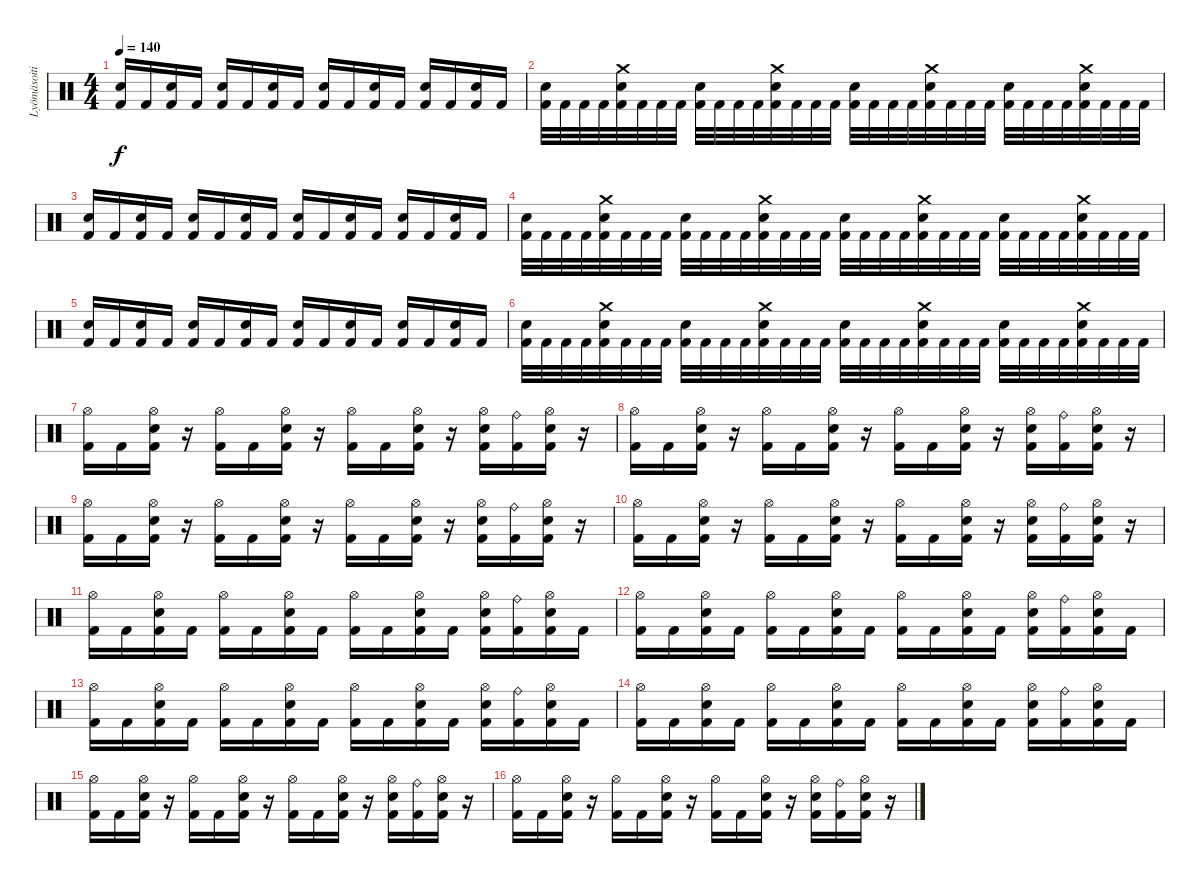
\track ("Lyömäsoitin" "Lyömäsoiti") {instrument percussion}
\staff {score}
\articulation defaults
\ts (4 4)
\tempo 140
\clef neutral
\ks c
("Electric Snare (hit)" "Kick (hit) 2").16{dy f} "Kick (hit) 2".16 ("Electric Snare (hit)" "Kick (hit) 2").16 "Kick (hit) 2".16 ("Electric Snare (hit)" "Kick (hit) 2").16 "Kick (hit) 2".16 ("Electric Snare (hit)" "Kick (hit) 2").16 "Kick (hit) 2".16 ("Electric Snare (hit)" "Kick (hit) 2").16 "Kick (hit) 2".16 ("Electric Snare (hit)" "Kick (hit) 2").16 "Kick (hit) 2".16 ("Electric Snare (hit)" "Kick (hit) 2").16 "Kick (hit) 2".16 ("Electric Snare (hit)" "Kick (hit) 2").16 "Kick (hit) 2".16 |
("Electric Snare (hit)" "Kick (hit) 2").32 "Kick (hit) 2".32 "Kick (hit) 2".32 "Kick (hit) 2".32 ("Crash medium (hit)" "Electric Snare (hit)" "Kick (hit) 2").32 "Kick (hit) 2".32 "Kick (hit) 2".32 "Kick (hit) 2".32 ("Electric Snare (hit)" "Kick (hit) 2").32 "Kick (hit) 2".32 "Kick (hit) 2".32 "Kick (hit) 2".32 ("Crash medium (hit)" "Electric Snare (hit)" "Kick (hit) 2").32 "Kick (hit) 2".32 "Kick (hit) 2".32 "Kick (hit) 2".32 ("Electric Snare (hit)" "Kick (hit) 2").32 "Kick (hit) 2".32 "Kick (hit) 2".32 "Kick (hit) 2".32 ("Crash medium (hit)" "Electric Snare (hit)" "Kick (hit) 2").32 "Kick (hit) 2".32 "Kick (hit) 2".32 "Kick (hit) 2".32 ("Electric Snare (hit)" "Kick (hit) 2").32 "Kick (hit) 2".32 "Kick (hit) 2".32 "Kick (hit) 2".32 ("Crash medium (hit)" "Electric Snare (hit)" "Kick (hit) 2").32 "Kick (hit) 2".32 "Kick (hit) 2".32 "Kick (hit) 2".32 |
("Electric Snare (hit)" "Kick (hit) 2").16 "Kick (hit) 2".16 ("Electric Snare (hit)" "Kick (hit) 2").16 "Kick (hit) 2".16 ("Electric Snare (hit)" "Kick (hit) 2").16 "Kick (hit) 2".16 ("Electric Snare (hit)" "Kick (hit) 2").16 "Kick (hit) 2".16 ("Electric Snare (hit)" "Kick (hit) 2").16 "Kick (hit) 2".16 ("Electric Snare (hit)" "Kick (hit) 2").16 "Kick (hit) 2".16 ("Electric Snare (hit)" "Kick (hit) 2").16 "Kick (hit) 2".16 ("Electric Snare (hit)" "Kick (hit) 2").16 "Kick (hit) 2".16 |
("Electric Snare (hit)" "Kick (hit) 2").32 "Kick (hit) 2".32 "Kick (hit) 2".32 "Kick (hit) 2".32 ("Crash medium (hit)" "Electric Snare (hit)" "Kick (hit) 2").32 "Kick (hit) 2".32 "Kick (hit) 2".32 "Kick (hit) 2".32 ("Electric Snare (hit)" "Kick (hit) 2").32 "Kick (hit) 2".32 "Kick (hit) 2".32 "Kick (hit) 2".32 ("Crash medium (hit)" "Electric Snare (hit)" "Kick (hit) 2").32 "Kick (hit) 2".32 "Kick (hit) 2".32 "Kick (hit) 2".32 ("Electric Snare (hit)" "Kick (hit) 2").32 "Kick (hit) 2".32 "Kick (hit) 2".32 "Kick (hit) 2".32 ("Crash medium (hit)" "Electric Snare (hit)" "Kick (hit) 2").32 "Kick (hit) 2".32 "Kick (hit) 2".32 "Kick (hit) 2".32 ("Electric Snare (hit)" "Kick (hit) 2").32 "Kick (hit) 2".32 "Kick (hit) 2".32 "Kick (hit) 2".32 ("Crash medium (hit)" "Electric Snare (hit)" "Kick (hit) 2").32 "Kick (hit) 2".32 "Kick (hit) 2".32 "Kick (hit) 2".32 |
("Electric Snare (hit)" "Kick (hit) 2").16 "Kick (hit) 2".16 ("Electric Snare (hit)" "Kick (hit) 2").16 "Kick (hit) 2".16 ("Electric Snare (hit)" "Kick (hit) 2").16 "Kick (hit) 2".16 ("Electric Snare (hit)" "Kick (hit) 2").16 "Kick (hit) 2".16 ("Electric Snare (hit)" "Kick (hit) 2").16 "Kick (hit) 2".16 ("Electric Snare (hit)" "Kick (hit) 2").16 "Kick (hit) 2".16 ("Electric Snare (hit)" "Kick (hit) 2").16 "Kick (hit) 2".16 ("Electric Snare (hit)" "Kick (hit) 2").16 "Kick (hit) 2".16 |
("Electric Snare (hit)" "Kick (hit) 2").32 "Kick (hit) 2".32 "Kick (hit) 2".32 "Kick (hit) 2".32 ("Crash medium (hit)" "Electric Snare (hit)" "Kick (hit) 2").32 "Kick (hit) 2".32 "Kick (hit) 2".32 "Kick (hit) 2".32 ("Electric Snare (hit)" "Kick (hit) 2").32 "Kick (hit) 2".32 "Kick (hit) 2".32 "Kick (hit) 2".32 ("Crash medium (hit)" "Electric Snare (hit)" "Kick (hit) 2").32 "Kick (hit) 2".32 "Kick (hit) 2".32 "Kick (hit) 2".32 ("Electric Snare (hit)" "Kick (hit) 2").32 "Kick (hit) 2".32 "Kick (hit) 2".32 "Kick (hit) 2".32 ("Crash medium (hit)" "Electric Snare (hit)" "Kick (hit) 2").32 "Kick (hit) 2".32 "Kick (hit) 2".32 "Kick (hit) 2".32 ("Electric Snare (hit)" "Kick (hit) 2").32 "Kick (hit) 2".32 "Kick (hit) 2".32 "Kick (hit) 2".32 ("Crash medium (hit)" "Electric Snare (hit)" "Kick (hit) 2").32 "Kick (hit) 2".32 "Kick (hit) 2".32 "Kick (hit) 2".32 |
("Hi-Hat (open)" "Kick (hit) 2").16 "Kick (hit) 2".16 ("Hi-Hat (open)" "Electric Snare (hit)" "Kick (hit) 2").16 r.16 ("Hi-Hat (open)" "Kick (hit) 2").16 "Kick (hit) 2".16 ("Hi-Hat (open)" "Electric Snare (hit)" "Kick (hit) 2").16 r.16 ("Hi-Hat (open)" "Kick (hit) 2").16 "Kick (hit) 2".16 ("Hi-Hat (open)" "Electric Snare (hit)" "Kick (hit) 2").16 r.16 ("Hi-Hat (open)" "Electric Snare (hit)" "Kick (hit) 2").16 ("Ride (bell)" "Kick (hit) 2").16 ("Hi-Hat (open)" "Electric Snare (hit)" "Kick (hit) 2").16 r.16 |
("Hi-Hat (open)" "Kick (hit) 2").16 "Kick (hit) 2".16 ("Hi-Hat (open)" "Electric Snare (hit)" "Kick (hit) 2").16 r.16 ("Hi-Hat (open)" "Kick (hit) 2").16 "Kick (hit) 2".16 ("Hi-Hat (open)" "Electric Snare (hit)" "Kick (hit) 2").16 r.16 ("Hi-Hat (open)" "Kick (hit) 2").16 "Kick (hit) 2".16 ("Hi-Hat (open)" "Electric Snare (hit)" "Kick (hit) 2").16 r.16 ("Hi-Hat (open)" "Electric Snare (hit)" "Kick (hit) 2").16 ("Ride (bell)" "Kick (hit) 2").16 ("Hi-Hat (open)" "Electric Snare (hit)" "Kick (hit) 2").16 r.16 |
("Hi-Hat (open)" "Kick (hit) 2").16 "Kick (hit) 2".16 ("Hi-Hat (open)" "Electric Snare (hit)" "Kick (hit) 2").16 r.16 ("Hi-Hat (open)" "Kick (hit) 2").16 "Kick (hit) 2".16 ("Hi-Hat (open)" "Electric Snare (hit)" "Kick (hit) 2").16 r.16 ("Hi-Hat (open)" "Kick (hit) 2").16 "Kick (hit) 2".16 ("Hi-Hat (open)" "Electric Snare (hit)" "Kick (hit) 2").16 r.16 ("Hi-Hat (open)" "Electric Snare (hit)" "Kick (hit) 2").16 ("Ride (bell)" "Kick (hit) 2").16 ("Hi-Hat (open)" "Electric Snare (hit)" "Kick (hit) 2").16 r.16 |
("Hi-Hat (open)" "Kick (hit) 2").16 "Kick (hit) 2".16 ("Hi-Hat (open)" "Electric Snare (hit)" "Kick (hit) 2").16 r.16 ("Hi-Hat (open)" "Kick (hit) 2").16 "Kick (hit) 2".16 ("Hi-Hat (open)" "Electric Snare (hit)" "Kick (hit) 2").16 r.16 ("Hi-Hat (open)" "Kick (hit) 2").16 "Kick (hit) 2".16 ("Hi-Hat (open)" "Electric Snare (hit)" "Kick (hit) 2").16 r.16 ("Hi-Hat (open)" "Electric Snare (hit)" "Kick (hit) 2").16 ("Ride (bell)" "Kick (hit) 2").16 ("Hi-Hat (open)" "Electric Snare (hit)" "Kick (hit) 2").16 r.16 |
("Hi-Hat (open)" "Kick (hit) 2").16 "Kick (hit) 2".16 ("Hi-Hat (open)" "Electric Snare (hit)" "Kick (hit) 2").16 "Kick (hit) 2".16 ("Hi-Hat (open)" "Kick (hit) 2").16 "Kick (hit) 2".16 ("Hi-Hat (open)" "Electric Snare (hit)" "Kick (hit) 2").16 "Kick (hit) 2".16 ("Hi-Hat (open)" "Kick (hit) 2").16 "Kick (hit) 2".16 ("Hi-Hat (open)" "Electric Snare (hit)" "Kick (hit) 2").16 "Kick (hit) 2".16 ("Hi-Hat (open)" "Electric Snare (hit)" "Kick (hit) 2").16 ("Ride (bell)" "Kick (hit) 2").16 ("Hi-Hat (open)" "Electric Snare (hit)" "Kick (hit) 2").16 "Kick (hit) 2".16 |
("Hi-Hat (open)" "Kick (hit) 2").16 "Kick (hit) 2".16 ("Hi-Hat (open)" "Electric Snare (hit)" "Kick (hit) 2").16 "Kick (hit) 2".16 ("Hi-Hat (open)" "Kick (hit) 2").16 "Kick (hit) 2".16 ("Hi-Hat (open)" "Electric Snare (hit)" "Kick (hit) 2").16 "Kick (hit) 2".16 ("Hi-Hat (open)" "Kick (hit) 2").16 "Kick (hit) 2".16 ("Hi-Hat (open)" "Electric Snare (hit)" "Kick (hit) 2").16 "Kick (hit) 2".16 ("Hi-Hat (open)" "Electric Snare (hit)" "Kick (hit) 2").16 ("Ride (bell)" "Kick (hit) 2").16 ("Hi-Hat (open)" "Electric Snare (hit)" "Kick (hit) 2").16 "Kick (hit) 2".16 |
("Hi-Hat (open)" "Kick (hit) 2").16 "Kick (hit) 2".16 ("Hi-Hat (open)" "Electric Snare (hit)" "Kick (hit) 2").16 "Kick (hit) 2".16 ("Hi-Hat (open)" "Kick (hit) 2").16 "Kick (hit) 2".16 ("Hi-Hat (open)" "Electric Snare (hit)" "Kick (hit) 2").16 "Kick (hit) 2".16 ("Hi-Hat (open)" "Kick (hit) 2").16 "Kick (hit) 2".16 ("Hi-Hat (open)" "Electric Snare (hit)" "Kick (hit) 2").16 "Kick (hit) 2".16 ("Hi-Hat (open)" "Electric Snare (hit)" "Kick (hit) 2").16 ("Ride (bell)" "Kick (hit) 2").16 ("Hi-Hat (open)" "Electric Snare (hit)" "Kick (hit) 2").16 "Kick (hit) 2".16 |
("Hi-Hat (open)" "Kick (hit) 2").16 "Kick (hit) 2".16 ("Hi-Hat (open)" "Electric Snare (hit)" "Kick (hit) 2").16 "Kick (hit) 2".16 ("Hi-Hat (open)" "Kick (hit) 2").16 "Kick (hit) 2".16 ("Hi-Hat (open)" "Electric Snare (hit)" "Kick (hit) 2").16 "Kick (hit) 2".16 ("Hi-Hat (open)" "Kick (hit) 2").16 "Kick (hit) 2".16 ("Hi-Hat (open)" "Electric Snare (hit)" "Kick (hit) 2").16 "Kick (hit) 2".16 ("Hi-Hat (open)" "Electric Snare (hit)" "Kick (hit) 2").16 ("Ride (bell)" "Kick (hit) 2").16 ("Hi-Hat (open)" "Electric Snare (hit)" "Kick (hit) 2").16 "Kick (hit) 2".16 |
("Hi-Hat (open)" "Kick (hit) 2").16 "Kick (hit) 2".16 ("Hi-Hat (open)" "Electric Snare (hit)" "Kick (hit) 2").16 r.16 ("Hi-Hat (open)" "Kick (hit) 2").16 "Kick (hit) 2".16 ("Hi-Hat (open)" "Electric Snare (hit)" "Kick (hit) 2").16 r.16 ("Hi-Hat (open)" "Kick (hit) 2").16 "Kick (hit) 2".16 ("Hi-Hat (open)" "Electric Snare (hit)" "Kick (hit) 2").16 r.16 ("Hi-Hat (open)" "Electric Snare (hit)" "Kick (hit) 2").16 ("Ride (bell)" "Kick (hit) 2").16 ("Hi-Hat (open)" "Electric Snare (hit)" "Kick (hit) 2").16 r.16 |
("Hi-Hat (open)" "Kick (hit) 2").16 "Kick (hit) 2".16 ("Hi-Hat (open)" "Electric Snare (hit)" "Kick (hit) 2").16 r.16 ("Hi-Hat (open)" "Kick (hit) 2").16 "Kick (hit) 2".16 ("Hi-Hat (open)" "Electric Snare (hit)" "Kick (hit) 2").16 r.16 ("Hi-Hat (open)" "Kick (hit) 2").16 "Kick (hit) 2".16 ("Hi-Hat (open)" "Electric Snare (hit)" "Kick (hit) 2").16 r.16 ("Hi-Hat (open)" "Electric Snare (hit)" "Kick (hit) 2").16 ("Ride (bell)" "Kick (hit) 2").16 ("Hi-Hat (open)" "Electric Snare (hit)" "Kick (hit) 2").16 r.16
